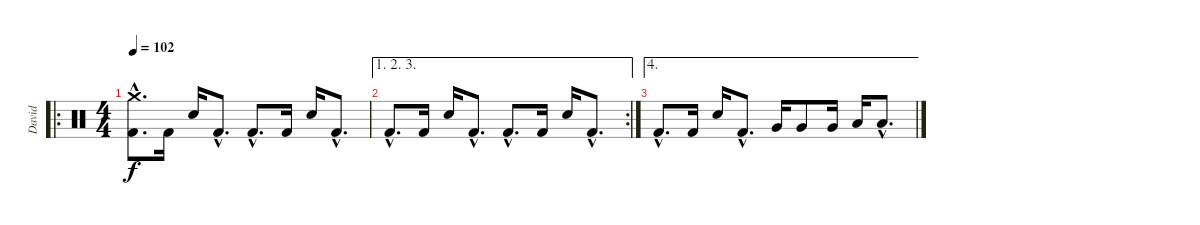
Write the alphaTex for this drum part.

\track ("David" "David") {instrument percussion}
\staff {score}
\articulation defaults
\ro
\ts (4 4)
\tempo 102
\clef neutral
\ks c
("Crash medium (hit)"{hac} "Kick (hit) 2"{hac}).8{d dy f} "Kick (hit) 2".16 "Snare (hit) 2".16 "Kick (hit) 2"{hac}.8{d} "Kick (hit) 2"{hac}.8{d} "Kick (hit) 2".16 "Snare (hit) 2".16 "Kick (hit) 2"{hac}.8{d} |
\ae (1 2 3)
\rc 2 "Kick (hit) 2"{hac}.8{d} "Kick (hit) 2".16 "Snare (hit) 2".16 "Kick (hit) 2"{hac}.8{d} "Kick (hit) 2"{hac}.8{d} "Kick (hit) 2".16 "Snare (hit) 2".16 "Kick (hit) 2"{hac}.8{d}
|
\ae 4 "Kick (hit) 2"{hac}.8{d} "Kick (hit) 2".16 "Snare (hit) 2".16 "Kick (hit) 2"{hac}.8{d} "Very Low Tom (hit)".16 "Very Low Tom (hit)".8 "Very Low Tom (hit)".16 "Low Floor Tom (hit)".16 "Low Floor Tom (hit)"{hac}.8{d}
